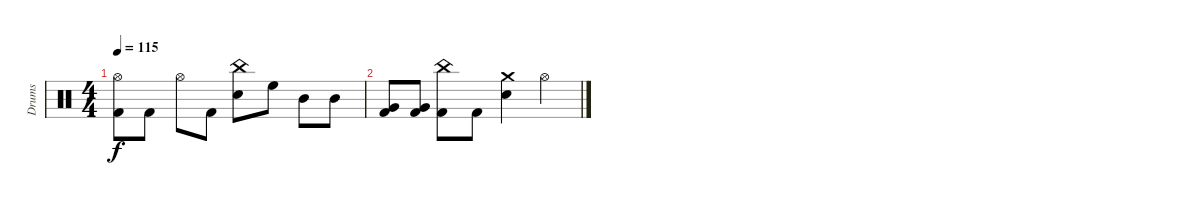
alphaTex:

\track ("Drums" "Drums") {instrument percussion}
\staff {score}
\articulation defaults
\ts (4 4)
\tempo 115
\clef neutral
\ks c
("Hi-Hat (open)" "Kick (hit) 2").8{dy f volume 3} "Kick (hit) 2".8 "Hi-Hat (open)".8 "Kick (hit) 2".8 ("China (hit)" "Electric Snare (hit)").8 "High Floor Tom (hit)".8 "Mid Tom (hit)".8 "Mid Tom (hit)".8 |
("Very Low Tom (hit)" "Kick (hit) 2").8{volume 2} ("Very Low Tom (hit)" "Kick (hit) 2").8 ("China (hit)" "Kick (hit) 2").8 "Kick (hit) 2".8 ("Crash medium (hit)" "Electric Snare (hit)").4 "Hi-Hat (open)".4
